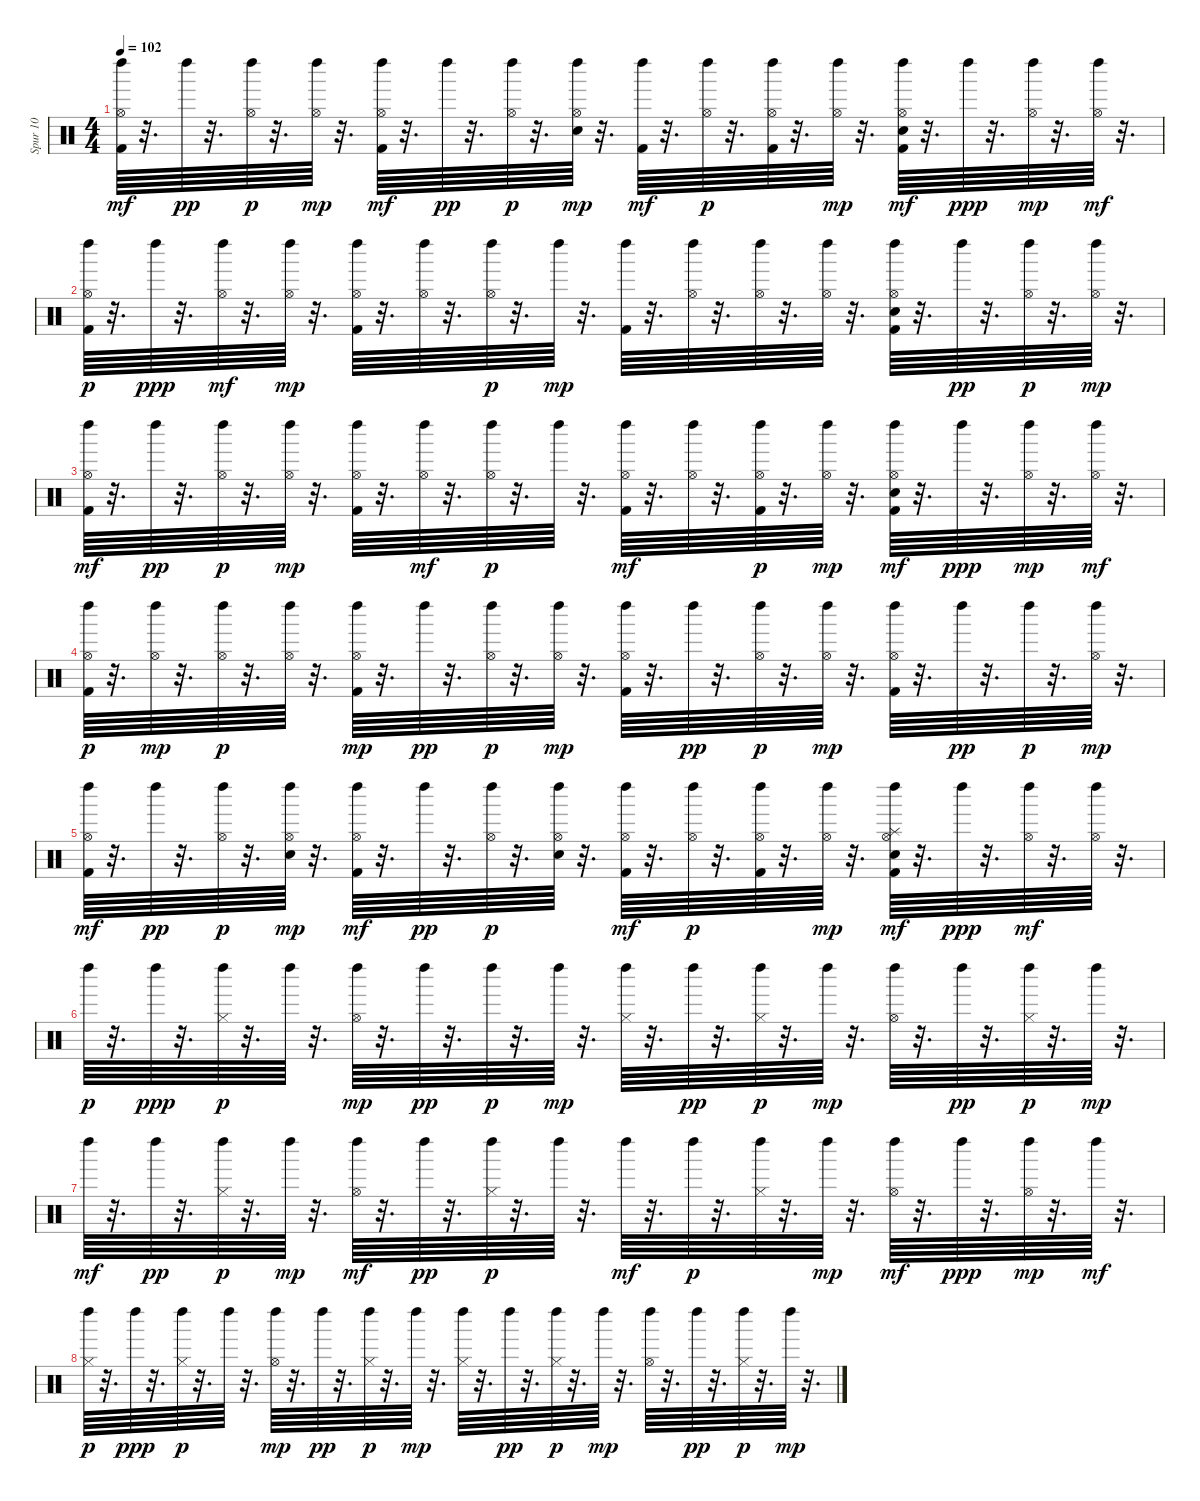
\track ("Spur 10" "Spur 10") {instrument percussion}
\staff {score}
\articulation defaults
\ts (4 4)
\tempo 102
\clef neutral
\ks c
("Kick (hit) 2" "Hi-Hat (open)" "Left Maraca (hit)").64{dy mf} r.32{d} "Left Maraca (hit)".64{dy pp} r.32{d} ("Hi-Hat (open)" "Left Maraca (hit)").64{dy p} r.32{d} ("Hi-Hat (open)" "Left Maraca (hit)").64{dy mp} r.32{d} ("Kick (hit) 2" "Hi-Hat (open)" "Left Maraca (hit)").64{dy mf} r.32{d} "Left Maraca (hit)".64{dy pp} r.32{d} ("Hi-Hat (open)" "Left Maraca (hit)").64{dy p} r.32{d} ("Hi-Hat (open)" "Left Maraca (hit)" "Snare (hit) 2").64{dy mp} r.32{d} ("Left Maraca (hit)" "Kick (hit) 2").64{dy mf} r.32{d} ("Hi-Hat (open)" "Left Maraca (hit)").64{dy p} r.32{d} ("Hi-Hat (open)" "Left Maraca (hit)" "Kick (hit) 2").64 r.32{d} ("Hi-Hat (open)" "Left Maraca (hit)").64{dy mp} r.32{d} ("Hi-Hat (open)" "Left Maraca (hit)" "Snare (hit) 2" "Kick (hit) 2").64{dy mf} r.32{d} "Left Maraca (hit)".64{dy ppp} r.32{d} ("Hi-Hat (open)" "Left Maraca (hit)").64{dy mp} r.32{d} ("Hi-Hat (open)" "Left Maraca (hit)").64{dy mf} r.32{d} |
("Kick (hit) 2" "Left Maraca (hit)" "Hi-Hat (open)").64{dy p} r.32{d} "Left Maraca (hit)".64{dy ppp} r.32{d} ("Left Maraca (hit)" "Hi-Hat (open)").64{dy mf} r.32{d} ("Left Maraca (hit)" "Hi-Hat (open)").64{dy mp} r.32{d} ("Kick (hit) 2" "Left Maraca (hit)" "Hi-Hat (open)").64 r.32{d} ("Left Maraca (hit)" "Hi-Hat (open)").64 r.32{d} ("Left Maraca (hit)" "Hi-Hat (open)").64{dy p} r.32{d} "Left Maraca (hit)".64{dy mp} r.32{d} ("Left Maraca (hit)" "Kick (hit) 2").64 r.32{d} ("Left Maraca (hit)" "Hi-Hat (open)").64 r.32{d} ("Left Maraca (hit)" "Hi-Hat (open)").64 r.32{d} ("Left Maraca (hit)" "Hi-Hat (open)").64 r.32{d} ("Snare (hit) 2" "Hi-Hat (open)" "Left Maraca (hit)" "Kick (hit) 2").64 r.32{d} "Left Maraca (hit)".64{dy pp} r.32{d} ("Hi-Hat (open)" "Left Maraca (hit)").64{dy p} r.32{d} ("Hi-Hat (open)" "Left Maraca (hit)").64{dy mp} r.32{d} |
("Hi-Hat (open)" "Left Maraca (hit)" "Kick (hit) 2").64{dy mf} r.32{d} "Left Maraca (hit)".64{dy pp} r.32{d} ("Hi-Hat (open)" "Left Maraca (hit)").64{dy p} r.32{d} ("Left Maraca (hit)" "Hi-Hat (open)").64{dy mp} r.32{d} ("Left Maraca (hit)" "Kick (hit) 2" "Hi-Hat (open)").64 r.32{d} ("Left Maraca (hit)" "Hi-Hat (open)").64{dy mf} r.32{d} ("Hi-Hat (open)" "Left Maraca (hit)").64{dy p} r.32{d} "Left Maraca (hit)".64 r.32{d} ("Hi-Hat (open)" "Left Maraca (hit)" "Kick (hit) 2").64{dy mf} r.32{d} ("Left Maraca (hit)" "Hi-Hat (open)").64 r.32{d} ("Hi-Hat (open)" "Left Maraca (hit)" "Kick (hit) 2").64{dy p} r.32{d} ("Hi-Hat (open)" "Left Maraca (hit)").64{dy mp} r.32{d} ("Hi-Hat (open)" "Left Maraca (hit)" "Snare (hit) 2" "Kick (hit) 2").64{dy mf} r.32{d} "Left Maraca (hit)".64{dy ppp} r.32{d} ("Hi-Hat (open)" "Left Maraca (hit)").64{dy mp} r.32{d} ("Hi-Hat (open)" "Left Maraca (hit)").64{dy mf} r.32{d} |
("Kick (hit) 2" "Hi-Hat (open)" "Left Maraca (hit)").64{dy p} r.32{d} ("Left Maraca (hit)" "Hi-Hat (open)").64{dy mp} r.32{d} ("Hi-Hat (open)" "Left Maraca (hit)").64{dy p} r.32{d} ("Hi-Hat (open)" "Left Maraca (hit)").64 r.32{d} ("Kick (hit) 2" "Hi-Hat (open)" "Left Maraca (hit)").64{dy mp} r.32{d} "Left Maraca (hit)".64{dy pp} r.32{d} ("Hi-Hat (open)" "Left Maraca (hit)").64{dy p} r.32{d} ("Hi-Hat (open)" "Left Maraca (hit)").64{dy mp} r.32{d} ("Kick (hit) 2" "Hi-Hat (open)" "Left Maraca (hit)").64 r.32{d} "Left Maraca (hit)".64{dy pp} r.32{d} ("Hi-Hat (open)" "Left Maraca (hit)").64{dy p} r.32{d} ("Hi-Hat (open)" "Left Maraca (hit)").64{dy mp} r.32{d} ("Kick (hit) 2" "Hi-Hat (open)" "Left Maraca (hit)").64 r.32{d} "Left Maraca (hit)".64{dy pp} r.32{d} "Left Maraca (hit)".64{dy p} r.32{d} ("Hi-Hat (open)" "Left Maraca (hit)").64{dy mp} r.32{d} |
("Hi-Hat (open)" "Left Maraca (hit)" "Kick (hit) 2").64{dy mf} r.32{d} "Left Maraca (hit)".64{dy pp} r.32{d} ("Hi-Hat (open)" "Left Maraca (hit)").64{dy p} r.32{d} ("Hi-Hat (open)" "Snare (hit) 2" "Left Maraca (hit)").64{dy mp} r.32{d} ("Hi-Hat (open)" "Left Maraca (hit)" "Kick (hit) 2").64{dy mf} r.32{d} "Left Maraca (hit)".64{dy pp} r.32{d} ("Hi-Hat (open)" "Left Maraca (hit)").64{dy p} r.32{d} ("Hi-Hat (open)" "Left Maraca (hit)" "Snare (hit) 2").64 r.32{d} ("Hi-Hat (open)" "Left Maraca (hit)" "Kick (hit) 2").64{dy mf} r.32{d} ("Hi-Hat (open)" "Left Maraca (hit)").64{dy p} r.32{d} ("Hi-Hat (open)" "Kick (hit) 2" "Left Maraca (hit)").64 r.32{d} ("Hi-Hat (open)" "Left Maraca (hit)").64{dy mp} r.32{d} ("Snare (hit) 2" "Hi-Hat (open)" "Left Maraca (hit)" "Kick (hit) 2" "Splash (hit)").64{dy mf} r.32{d} "Left Maraca (hit)".64{dy ppp} r.32{d} ("Left Maraca (hit)" "Hi-Hat (open)").64{dy mf} r.32{d} ("Hi-Hat (open)" "Left Maraca (hit)").64 r.32{d} |
"Left Maraca (hit)".64{dy p} r.32{d} "Left Maraca (hit)".64{dy ppp} r.32{d} ("Hi-Hat (closed)" "Left Maraca (hit)").64{dy p} r.32{d} "Left Maraca (hit)".64 r.32{d} ("Hi-Hat (open)" "Left Maraca (hit)").64{dy mp} r.32{d} "Left Maraca (hit)".64{dy pp} r.32{d} "Left Maraca (hit)".64{dy p} r.32{d} "Left Maraca (hit)".64{dy mp} r.32{d} ("Hi-Hat (closed)" "Left Maraca (hit)").64 r.32{d} "Left Maraca (hit)".64{dy pp} r.32{d} ("Hi-Hat (closed)" "Left Maraca (hit)").64{dy p} r.32{d} "Left Maraca (hit)".64{dy mp} r.32{d} ("Hi-Hat (open)" "Left Maraca (hit)").64 r.32{d} "Left Maraca (hit)".64{dy pp} r.32{d} ("Hi-Hat (closed)" "Left Maraca (hit)").64{dy p} r.32{d} "Left Maraca (hit)".64{dy mp} r.32{d} |
"Left Maraca (hit)".64{dy mf} r.32{d} "Left Maraca (hit)".64{dy pp} r.32{d} ("Hi-Hat (closed)" "Left Maraca (hit)").64{dy p} r.32{d} "Left Maraca (hit)".64{dy mp} r.32{d} ("Hi-Hat (open)" "Left Maraca (hit)").64{dy mf} r.32{d} "Left Maraca (hit)".64{dy pp} r.32{d} ("Hi-Hat (closed)" "Left Maraca (hit)").64{dy p} r.32{d} "Left Maraca (hit)".64 r.32{d} "Left Maraca (hit)".64{dy mf} r.32{d} "Left Maraca (hit)".64{dy p} r.32{d} ("Hi-Hat (closed)" "Left Maraca (hit)").64 r.32{d} "Left Maraca (hit)".64{dy mp} r.32{d} ("Hi-Hat (open)" "Left Maraca (hit)").64{dy mf} r.32{d} "Left Maraca (hit)".64{dy ppp} r.32{d} ("Hi-Hat (open)" "Left Maraca (hit)").64{dy mp} r.32{d} "Left Maraca (hit)".64{dy mf} r.32{d} |
("Hi-Hat (closed)" "Left Maraca (hit)").64{dy p} r.32{d} "Left Maraca (hit)".64{dy ppp} r.32{d} ("Hi-Hat (closed)" "Left Maraca (hit)").64{dy p} r.32{d} "Left Maraca (hit)".64 r.32{d} ("Hi-Hat (open)" "Left Maraca (hit)").64{dy mp} r.32{d} "Left Maraca (hit)".64{dy pp} r.32{d} ("Hi-Hat (closed)" "Left Maraca (hit)").64{dy p} r.32{d} "Left Maraca (hit)".64{dy mp} r.32{d} ("Hi-Hat (closed)" "Left Maraca (hit)").64 r.32{d} "Left Maraca (hit)".64{dy pp} r.32{d} ("Hi-Hat (closed)" "Left Maraca (hit)").64{dy p} r.32{d} "Left Maraca (hit)".64{dy mp} r.32{d} ("Hi-Hat (open)" "Left Maraca (hit)").64 r.32{d} "Left Maraca (hit)".64{dy pp} r.32{d} ("Hi-Hat (closed)" "Left Maraca (hit)").64{dy p} r.32{d} "Left Maraca (hit)".64{dy mp} r.32{d}
